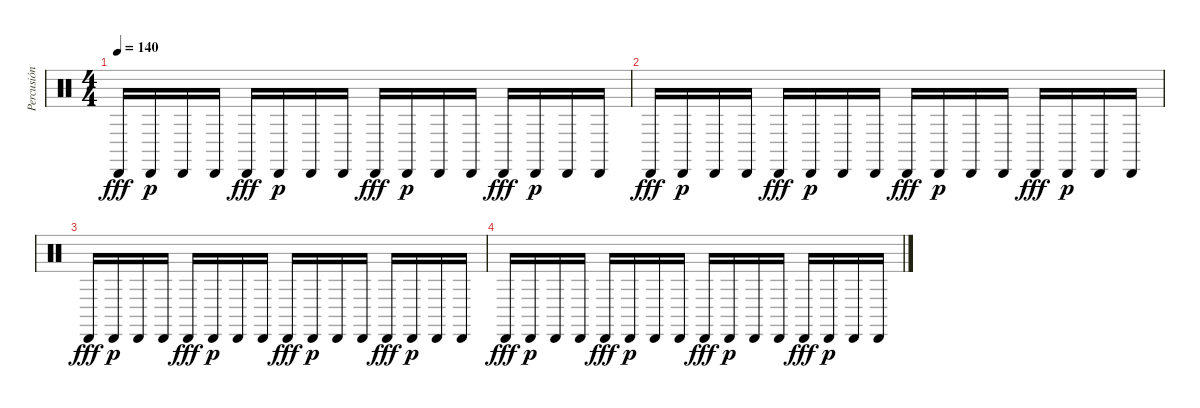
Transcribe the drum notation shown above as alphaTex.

\track ("Percusión Fredy Caldas" "Percusión ") {instrument percussion}
\staff {score}
\articulation defaults
\ts (4 4)
\tempo 140
\clef neutral
\ks c "Cabasa (hit)".16{dy fff} "Cabasa (hit)".16{dy p} "Cabasa (hit)".16 "Cabasa (hit)".16 "Cabasa (hit)".16{dy fff} "Cabasa (hit)".16{dy p} "Cabasa (hit)".16 "Cabasa (hit)".16 "Cabasa (hit)".16{dy fff} "Cabasa (hit)".16{dy p} "Cabasa (hit)".16 "Cabasa (hit)".16 "Cabasa (hit)".16{dy fff} "Cabasa (hit)".16{dy p} "Cabasa (hit)".16 "Cabasa (hit)".16
|
"Cabasa (hit)".16{dy fff} "Cabasa (hit)".16{dy p} "Cabasa (hit)".16 "Cabasa (hit)".16 "Cabasa (hit)".16{dy fff} "Cabasa (hit)".16{dy p} "Cabasa (hit)".16 "Cabasa (hit)".16 "Cabasa (hit)".16{dy fff} "Cabasa (hit)".16{dy p} "Cabasa (hit)".16 "Cabasa (hit)".16 "Cabasa (hit)".16{dy fff} "Cabasa (hit)".16{dy p} "Cabasa (hit)".16 "Cabasa (hit)".16 |
"Cabasa (hit)".16{dy fff} "Cabasa (hit)".16{dy p} "Cabasa (hit)".16 "Cabasa (hit)".16 "Cabasa (hit)".16{dy fff} "Cabasa (hit)".16{dy p} "Cabasa (hit)".16 "Cabasa (hit)".16 "Cabasa (hit)".16{dy fff} "Cabasa (hit)".16{dy p} "Cabasa (hit)".16 "Cabasa (hit)".16 "Cabasa (hit)".16{dy fff} "Cabasa (hit)".16{dy p} "Cabasa (hit)".16 "Cabasa (hit)".16 |
"Cabasa (hit)".16{dy fff} "Cabasa (hit)".16{dy p} "Cabasa (hit)".16 "Cabasa (hit)".16 "Cabasa (hit)".16{dy fff} "Cabasa (hit)".16{dy p} "Cabasa (hit)".16 "Cabasa (hit)".16 "Cabasa (hit)".16{dy fff} "Cabasa (hit)".16{dy p} "Cabasa (hit)".16 "Cabasa (hit)".16 "Cabasa (hit)".16{dy fff} "Cabasa (hit)".16{dy p} "Cabasa (hit)".16 "Cabasa (hit)".16
